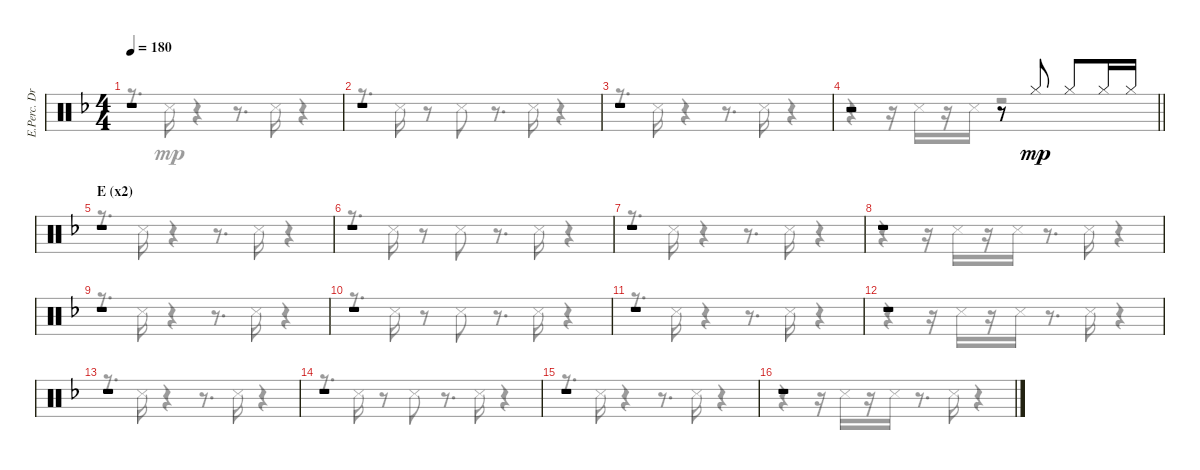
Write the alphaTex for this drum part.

\track ("E.Perc. Drums" "E.Perc. Dr") {instrument percussion}
\staff {score}
\articulation defaults
\voice
\ts (4 4)
\tempo 180
\clef neutral
\ks f
r.1{dy mp} |
r.1 |
r.1 |
\barLineRight lightlight
r.2 r.8 "Hi-Hat (closed)".8 "Hi-Hat (closed)".8 "Hi-Hat (closed)".16 "Hi-Hat (closed)".16 |
\section ("" "E (x2)")
r.1 |
r.1 |
r.1 |
r.1 |
r.1 |
r.1 |
r.1 |
r.1 |
r.1 |
r.1 |
r.1 |
r.1
\voice
\clef neutral
\ottava regular
\simile none
\ks f
r.8{d dy mp} "Snare (side stick) 3".16 r.4 r.8{d} "Snare (side stick) 3".16 r.4 |
r.8{d} "Snare (side stick) 3".16 r.8 "Snare (side stick) 3".8 r.8{d} "Snare (side stick) 3".16 r.4 |
r.8{d} "Snare (side stick) 3".16 r.4 r.8{d} "Snare (side stick) 3".16 r.4 |
\barLineRight lightlight
r.4 r.16 "Snare (side stick) 3".16 r.16 "Snare (side stick) 3".16 r.2 |
r.8{d} "Snare (side stick) 3".16 r.4 r.8{d} "Snare (side stick) 3".16 r.4 |
r.8{d} "Snare (side stick) 3".16 r.8 "Snare (side stick) 3".8 r.8{d} "Snare (side stick) 3".16 r.4 |
r.8{d} "Snare (side stick) 3".16 r.4 r.8{d} "Snare (side stick) 3".16 r.4 |
r.4 r.16 "Snare (side stick) 3".16 r.16 "Snare (side stick) 3".16 r.8{d} "Snare (side stick) 3".16 r.4 |
r.8{d} "Snare (side stick) 3".16 r.4 r.8{d} "Snare (side stick) 3".16 r.4 |
r.8{d} "Snare (side stick) 3".16 r.8 "Snare (side stick) 3".8 r.8{d} "Snare (side stick) 3".16 r.4 |
r.8{d} "Snare (side stick) 3".16 r.4 r.8{d} "Snare (side stick) 3".16 r.4 |
r.4 r.16 "Snare (side stick) 3".16 r.16 "Snare (side stick) 3".16 r.8{d} "Snare (side stick) 3".16 r.4 |
r.8{d} "Snare (side stick) 3".16 r.4 r.8{d} "Snare (side stick) 3".16 r.4 |
r.8{d} "Snare (side stick) 3".16 r.8 "Snare (side stick) 3".8 r.8{d} "Snare (side stick) 3".16 r.4 |
r.8{d} "Snare (side stick) 3".16 r.4 r.8{d} "Snare (side stick) 3".16 r.4 |
r.4 r.16 "Snare (side stick) 3".16 r.16 "Snare (side stick) 3".16 r.8{d} "Snare (side stick) 3".16 r.4
